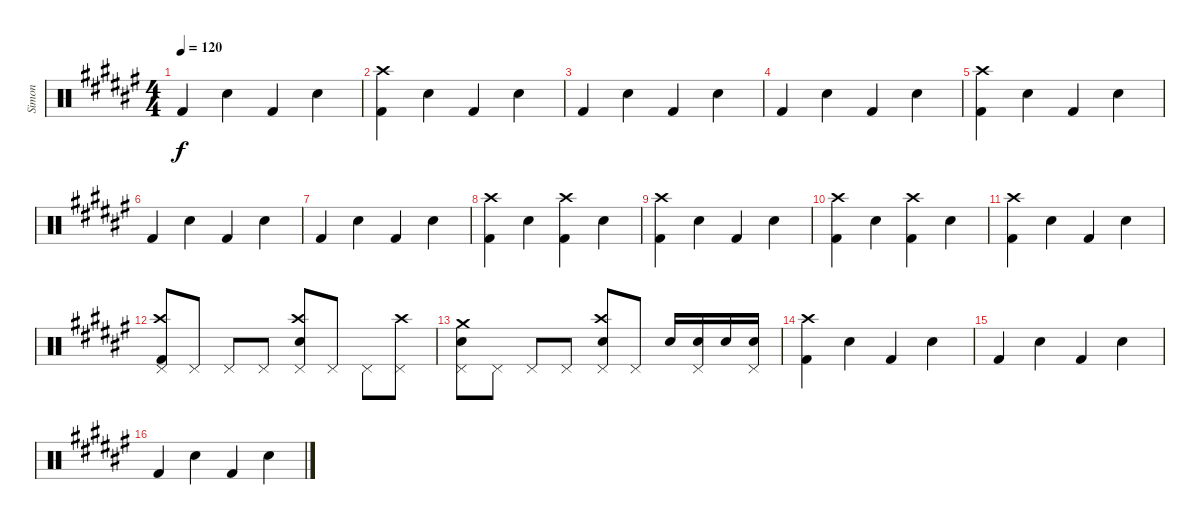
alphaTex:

\track ("Simon" "Simon") {instrument percussion}
\staff {score}
\articulation defaults
\ts (4 4)
\tempo 120
\clef neutral
\ks f# "Kick (hit) 2".4{dy f} "Snare (hit) 2".4 "Kick (hit) 2".4 "Snare (hit) 2".4
|
("Kick (hit) 2" "Crash high (hit)").4 "Snare (hit) 2".4 "Kick (hit) 2".4 "Snare (hit) 2".4 |
"Kick (hit) 2".4 "Snare (hit) 2".4 "Kick (hit) 2".4 "Snare (hit) 2".4 |
"Kick (hit) 2".4 "Snare (hit) 2".4 "Kick (hit) 2".4 "Snare (hit) 2".4 |
("Kick (hit) 2" "Crash high (hit)").4 "Snare (hit) 2".4 "Kick (hit) 2".4 "Snare (hit) 2".4 |
"Kick (hit) 2".4 "Snare (hit) 2".4 "Kick (hit) 2".4 "Snare (hit) 2".4 |
"Kick (hit) 2".4 "Snare (hit) 2".4 "Kick (hit) 2".4 "Snare (hit) 2".4 |
("Kick (hit) 2" "Crash high (hit)").4 "Snare (hit) 2".4 ("Kick (hit) 2" "Crash high (hit)").4 "Snare (hit) 2".4 |
("Kick (hit) 2" "Crash high (hit)").4 "Snare (hit) 2".4 "Kick (hit) 2".4 "Snare (hit) 2".4 |
("Kick (hit) 2" "Crash high (hit)").4 "Snare (hit) 2".4 ("Kick (hit) 2" "Crash high (hit)").4 "Snare (hit) 2".4 |
("Kick (hit) 2" "Crash high (hit)").4 "Snare (hit) 2".4 "Kick (hit) 2".4 "Snare (hit) 2".4 |
("Kick (hit) 2" "Pedal Hi-Hat (hit)" "Crash high (hit)").8 "Pedal Hi-Hat (hit)".8 "Pedal Hi-Hat (hit)".8 "Pedal Hi-Hat (hit)".8 ("Snare (hit) 2" "Pedal Hi-Hat (hit)" "Crash high (hit)").8 "Pedal Hi-Hat (hit)".8 "Pedal Hi-Hat (hit)".8 ("Pedal Hi-Hat (hit)" "Crash high (hit)").8 |
("Snare (hit) 2" "Pedal Hi-Hat (hit)" "Crash medium (hit)").8 "Pedal Hi-Hat (hit)".8 "Pedal Hi-Hat (hit)".8 "Pedal Hi-Hat (hit)".8 ("Snare (hit) 2" "Pedal Hi-Hat (hit)" "Crash high (hit)").8 "Pedal Hi-Hat (hit)".8 "Snare (hit) 2".16 ("Snare (hit) 2" "Pedal Hi-Hat (hit)").16 "Snare (hit) 2".16 ("Snare (hit) 2" "Pedal Hi-Hat (hit)").16 |
("Kick (hit) 2" "Crash high (hit)").4 "Snare (hit) 2".4 "Kick (hit) 2".4 "Snare (hit) 2".4 |
"Kick (hit) 2".4 "Snare (hit) 2".4 "Kick (hit) 2".4 "Snare (hit) 2".4 |
"Kick (hit) 2".4 "Snare (hit) 2".4 "Kick (hit) 2".4 "Snare (hit) 2".4
